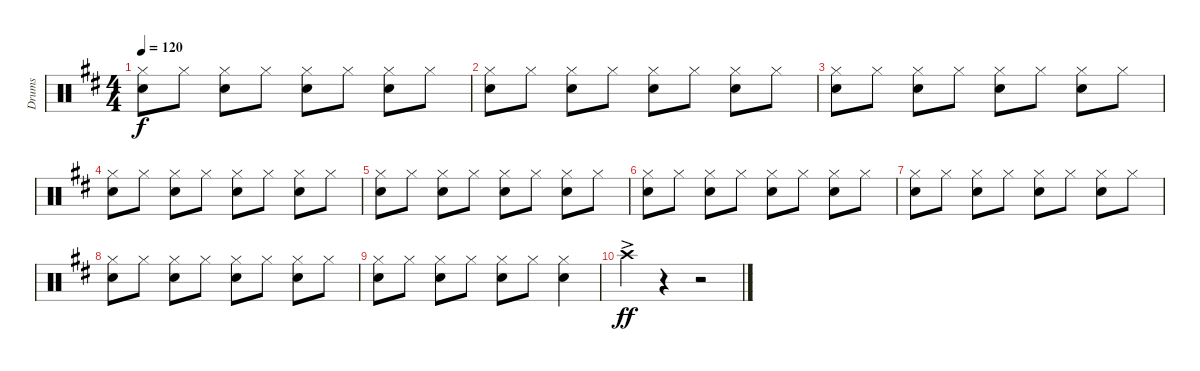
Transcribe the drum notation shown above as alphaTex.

\track ("Drums" "Drums") {instrument percussion}
\staff {score}
\articulation defaults
\ts (4 4)
\tempo 120
\clef neutral
\ks d
("Hi-Hat (closed)" "Snare (hit) 2").8{dy f} "Hi-Hat (closed)".8 ("Hi-Hat (closed)" "Snare (hit) 2").8 "Hi-Hat (closed)".8 ("Hi-Hat (closed)" "Snare (hit) 2").8 "Hi-Hat (closed)".8 ("Hi-Hat (closed)" "Snare (hit) 2").8 "Hi-Hat (closed)".8 |
("Hi-Hat (closed)" "Snare (hit) 2").8 "Hi-Hat (closed)".8 ("Hi-Hat (closed)" "Snare (hit) 2").8 "Hi-Hat (closed)".8 ("Hi-Hat (closed)" "Snare (hit) 2").8 "Hi-Hat (closed)".8 ("Hi-Hat (closed)" "Snare (hit) 2").8 "Hi-Hat (closed)".8 |
("Hi-Hat (closed)" "Snare (hit) 2").8 "Hi-Hat (closed)".8 ("Hi-Hat (closed)" "Snare (hit) 2").8 "Hi-Hat (closed)".8 ("Hi-Hat (closed)" "Snare (hit) 2").8 "Hi-Hat (closed)".8 ("Hi-Hat (closed)" "Snare (hit) 2").8 "Hi-Hat (closed)".8 |
("Hi-Hat (closed)" "Snare (hit) 2").8 "Hi-Hat (closed)".8 ("Hi-Hat (closed)" "Snare (hit) 2").8 "Hi-Hat (closed)".8 ("Hi-Hat (closed)" "Snare (hit) 2").8 "Hi-Hat (closed)".8 ("Hi-Hat (closed)" "Snare (hit) 2").8 "Hi-Hat (closed)".8 |
("Hi-Hat (closed)" "Snare (hit) 2").8 "Hi-Hat (closed)".8 ("Hi-Hat (closed)" "Snare (hit) 2").8 "Hi-Hat (closed)".8 ("Hi-Hat (closed)" "Snare (hit) 2").8 "Hi-Hat (closed)".8 ("Hi-Hat (closed)" "Snare (hit) 2").8 "Hi-Hat (closed)".8 |
("Hi-Hat (closed)" "Snare (hit) 2").8 "Hi-Hat (closed)".8 ("Hi-Hat (closed)" "Snare (hit) 2").8 "Hi-Hat (closed)".8 ("Hi-Hat (closed)" "Snare (hit) 2").8 "Hi-Hat (closed)".8 ("Hi-Hat (closed)" "Snare (hit) 2").8 "Hi-Hat (closed)".8 |
("Hi-Hat (closed)" "Snare (hit) 2").8 "Hi-Hat (closed)".8 ("Hi-Hat (closed)" "Snare (hit) 2").8 "Hi-Hat (closed)".8 ("Hi-Hat (closed)" "Snare (hit) 2").8 "Hi-Hat (closed)".8 ("Hi-Hat (closed)" "Snare (hit) 2").8 "Hi-Hat (closed)".8 |
("Hi-Hat (closed)" "Snare (hit) 2").8 "Hi-Hat (closed)".8 ("Hi-Hat (closed)" "Snare (hit) 2").8 "Hi-Hat (closed)".8 ("Hi-Hat (closed)" "Snare (hit) 2").8 "Hi-Hat (closed)".8 ("Hi-Hat (closed)" "Snare (hit) 2").8 "Hi-Hat (closed)".8 |
("Hi-Hat (closed)" "Snare (hit) 2").8 "Hi-Hat (closed)".8 ("Hi-Hat (closed)" "Snare (hit) 2").8 "Hi-Hat (closed)".8 ("Hi-Hat (closed)" "Snare (hit) 2").8 "Hi-Hat (closed)".8 ("Hi-Hat (closed)" "Snare (hit) 2").4 |
"Crash high (hit)"{ac}.4{dy ff} r.4 r.2
